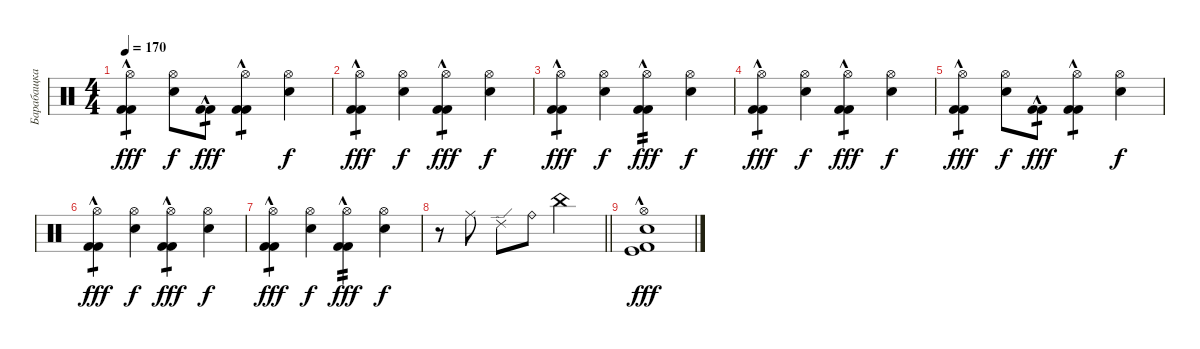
\track ("Барабащка" "Барабащка") {instrument percussion}
\staff {score}
\articulation defaults
\ts (4 4)
\tempo 170
\clef neutral
\ks c
("Hi-Hat (open)" "Kick (hit) 2"{hac} "Kick (hit) 2").4{tp 1 dy fff} ("Hi-Hat (open)" "Snare (hit) 2").8{dy f} ("Kick (hit) 2"{hac} "Kick (hit) 2").8{tp 1 dy fff} ("Hi-Hat (open)" "Kick (hit) 2"{hac} "Kick (hit) 2").4{tp 1} ("Hi-Hat (open)" "Snare (hit) 2").4{dy f} |
("Hi-Hat (open)" "Kick (hit) 2"{hac} "Kick (hit) 2").4{tp 1 dy fff} ("Hi-Hat (open)" "Snare (hit) 2").4{dy f} ("Hi-Hat (open)" "Kick (hit) 2"{hac} "Kick (hit) 2").4{tp 1 dy fff} ("Hi-Hat (open)" "Snare (hit) 2").4{dy f} |
("Hi-Hat (open)" "Kick (hit) 2"{hac} "Kick (hit) 2").4{tp 1 dy fff} ("Hi-Hat (open)" "Snare (hit) 2").4{dy f} ("Hi-Hat (open)" "Kick (hit) 2"{hac} "Kick (hit) 2").4{tp 2 dy fff} ("Hi-Hat (open)" "Snare (hit) 2").4{dy f} |
("Hi-Hat (open)" "Kick (hit) 2"{hac} "Kick (hit) 2").4{tp 1 dy fff} ("Hi-Hat (open)" "Snare (hit) 2").4{dy f} ("Hi-Hat (open)" "Kick (hit) 2"{hac} "Kick (hit) 2").4{tp 1 dy fff} ("Hi-Hat (open)" "Snare (hit) 2").4{dy f} |
("Hi-Hat (open)" "Kick (hit) 2"{hac} "Kick (hit) 2").4{tp 1 dy fff} ("Hi-Hat (open)" "Snare (hit) 2").8{dy f} ("Kick (hit) 2"{hac} "Kick (hit) 2").8{tp 1 dy fff} ("Hi-Hat (open)" "Kick (hit) 2"{hac} "Kick (hit) 2").4{tp 1} ("Hi-Hat (open)" "Snare (hit) 2").4{dy f} |
("Hi-Hat (open)" "Kick (hit) 2"{hac} "Kick (hit) 2").4{tp 1 dy fff} ("Hi-Hat (open)" "Snare (hit) 2").4{dy f} ("Hi-Hat (open)" "Kick (hit) 2"{hac} "Kick (hit) 2").4{tp 1 dy fff} ("Hi-Hat (open)" "Snare (hit) 2").4{dy f} |
("Hi-Hat (open)" "Kick (hit) 2"{hac} "Kick (hit) 2").4{tp 1 dy fff} ("Hi-Hat (open)" "Snare (hit) 2").4{dy f} ("Hi-Hat (open)" "Kick (hit) 2"{hac} "Kick (hit) 2").4{tp 2 dy fff} ("Hi-Hat (open)" "Snare (hit) 2").4{dy f} |
\barLineRight lightlight
r.8 "Ride (middle)".8 "Ride (edge) 2".8 "Ride (bell)".8 "China (hit)".2 |
("Hi-Hat (open)" "Snare (hit) 2" "Kick (hit) 2"{hac} "Kick (hit)").1{dy fff}
